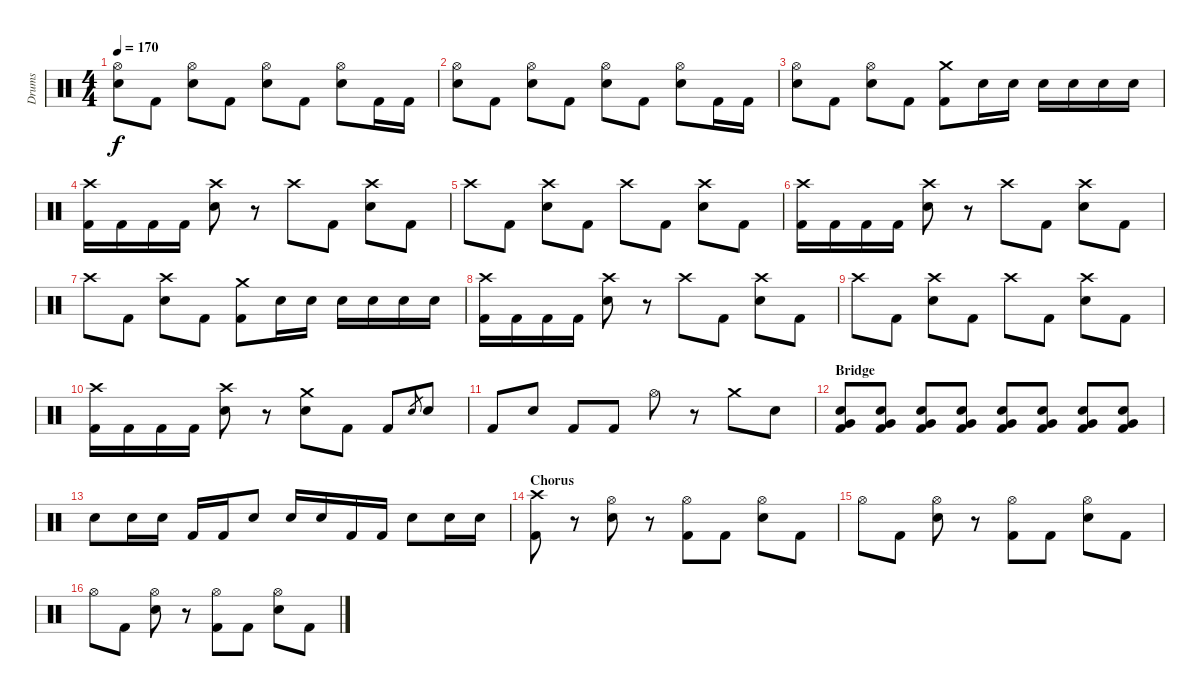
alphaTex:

\track ("Drums" "Drums") {instrument percussion}
\staff {score}
\articulation defaults
\ts (4 4)
\tempo 170
\clef neutral
\ks c
("Hi-Hat (open)" "Electric Snare (hit)").8{dy f} "Kick (hit) 2".8 ("Hi-Hat (open)" "Electric Snare (hit)").8 "Kick (hit) 2".8 ("Hi-Hat (open)" "Electric Snare (hit)").8 "Kick (hit) 2".8 ("Hi-Hat (open)" "Electric Snare (hit)").8 "Kick (hit) 2".16 "Kick (hit) 2".16 |
("Hi-Hat (open)" "Electric Snare (hit)").8 "Kick (hit) 2".8 ("Hi-Hat (open)" "Electric Snare (hit)").8 "Kick (hit) 2".8 ("Hi-Hat (open)" "Electric Snare (hit)").8 "Kick (hit) 2".8 ("Hi-Hat (open)" "Electric Snare (hit)").8 "Kick (hit) 2".16 "Kick (hit) 2".16 |
("Hi-Hat (open)" "Electric Snare (hit)").8 "Kick (hit) 2".8 ("Hi-Hat (open)" "Electric Snare (hit)").8 "Kick (hit) 2".8 ("Crash medium (hit)" "Kick (hit) 2").8 "Electric Snare (hit)".16 "Electric Snare (hit)".16 "Electric Snare (hit)".16 "Electric Snare (hit)".16 "Electric Snare (hit)".16 "Electric Snare (hit)".16 |
("Crash high (hit)" "Kick (hit) 2").16 "Kick (hit) 2".16 "Kick (hit) 2".16 "Kick (hit) 2".16 ("Crash high (hit)" "Electric Snare (hit)").8 r.8 "Crash high (hit)".8 "Kick (hit) 2".8 ("Crash high (hit)" "Electric Snare (hit)").8 "Kick (hit) 2".8 |
"Crash high (hit)".8 "Kick (hit) 2".8 ("Crash high (hit)" "Electric Snare (hit)").8 "Kick (hit) 2".8 "Crash high (hit)".8 "Kick (hit) 2".8 ("Crash high (hit)" "Electric Snare (hit)").8 "Kick (hit) 2".8 |
("Crash high (hit)" "Kick (hit) 2").16 "Kick (hit) 2".16 "Kick (hit) 2".16 "Kick (hit) 2".16 ("Crash high (hit)" "Electric Snare (hit)").8 r.8 "Crash high (hit)".8 "Kick (hit) 2".8 ("Crash high (hit)" "Electric Snare (hit)").8 "Kick (hit) 2".8 |
"Crash high (hit)".8 "Kick (hit) 2".8 ("Crash high (hit)" "Electric Snare (hit)").8 "Kick (hit) 2".8 ("Crash medium (hit)" "Kick (hit) 2").8 "Electric Snare (hit)".16 "Electric Snare (hit)".16 "Electric Snare (hit)".16 "Electric Snare (hit)".16 "Electric Snare (hit)".16 "Electric Snare (hit)".16 |
("Crash high (hit)" "Kick (hit) 2").16 "Kick (hit) 2".16 "Kick (hit) 2".16 "Kick (hit) 2".16 ("Crash high (hit)" "Electric Snare (hit)").8 r.8 "Crash high (hit)".8 "Kick (hit) 2".8 ("Crash high (hit)" "Electric Snare (hit)").8 "Kick (hit) 2".8 |
"Crash high (hit)".8 "Kick (hit) 2".8 ("Crash high (hit)" "Electric Snare (hit)").8 "Kick (hit) 2".8 "Crash high (hit)".8 "Kick (hit) 2".8 ("Crash high (hit)" "Electric Snare (hit)").8 "Kick (hit) 2".8 |
("Crash high (hit)" "Kick (hit) 2").16 "Kick (hit) 2".16 "Kick (hit) 2".16 "Kick (hit) 2".16 ("Crash high (hit)" "Electric Snare (hit)").8 r.8 ("Crash medium (hit)" "Electric Snare (hit)").8 "Kick (hit) 2".8 "Kick (hit) 2".8 "Electric Snare (hit)".8{gr} "Electric Snare (hit)".8 |
"Kick (hit) 2".8 "Electric Snare (hit)".8 "Kick (hit) 2".8 "Kick (hit) 2".8 "Hi-Hat (open)".8 r.8 "Crash medium (hit)".8 "Electric Snare (hit)".8 |
\section ("" "Bridge")
("Very Low Tom (hit)" "Electric Snare (hit)" "Kick (hit) 2").8 ("Very Low Tom (hit)" "Electric Snare (hit)" "Kick (hit) 2").8 ("Very Low Tom (hit)" "Electric Snare (hit)" "Kick (hit) 2").8 ("Very Low Tom (hit)" "Electric Snare (hit)" "Kick (hit) 2").8 ("Very Low Tom (hit)" "Electric Snare (hit)" "Kick (hit) 2").8 ("Very Low Tom (hit)" "Electric Snare (hit)" "Kick (hit) 2").8 ("Very Low Tom (hit)" "Electric Snare (hit)" "Kick (hit) 2").8 ("Very Low Tom (hit)" "Electric Snare (hit)" "Kick (hit) 2").8 |
"Electric Snare (hit)".8 "Electric Snare (hit)".16 "Electric Snare (hit)".16 "Kick (hit) 2".16 "Kick (hit) 2".16 "Electric Snare (hit)".8 "Electric Snare (hit)".16 "Electric Snare (hit)".16 "Kick (hit) 2".16 "Kick (hit) 2".16 "Electric Snare (hit)".8 "Electric Snare (hit)".16 "Electric Snare (hit)".16 |
\section ("" "Chorus")
("Crash high (hit)" "Kick (hit) 2").8 r.8 ("Hi-Hat (open)" "Electric Snare (hit)").8 r.8 ("Hi-Hat (open)" "Kick (hit) 2").8 "Kick (hit) 2".8 ("Hi-Hat (open)" "Electric Snare (hit)").8 "Kick (hit) 2".8 |
"Hi-Hat (open)".8 "Kick (hit) 2".8 ("Hi-Hat (open)" "Electric Snare (hit)").8 r.8 ("Hi-Hat (open)" "Kick (hit) 2").8 "Kick (hit) 2".8 ("Hi-Hat (open)" "Electric Snare (hit)").8 "Kick (hit) 2".8 |
"Hi-Hat (open)".8 "Kick (hit) 2".8 ("Hi-Hat (open)" "Electric Snare (hit)").8 r.8 ("Hi-Hat (open)" "Kick (hit) 2").8 "Kick (hit) 2".8 ("Hi-Hat (open)" "Electric Snare (hit)").8 "Kick (hit) 2".8
